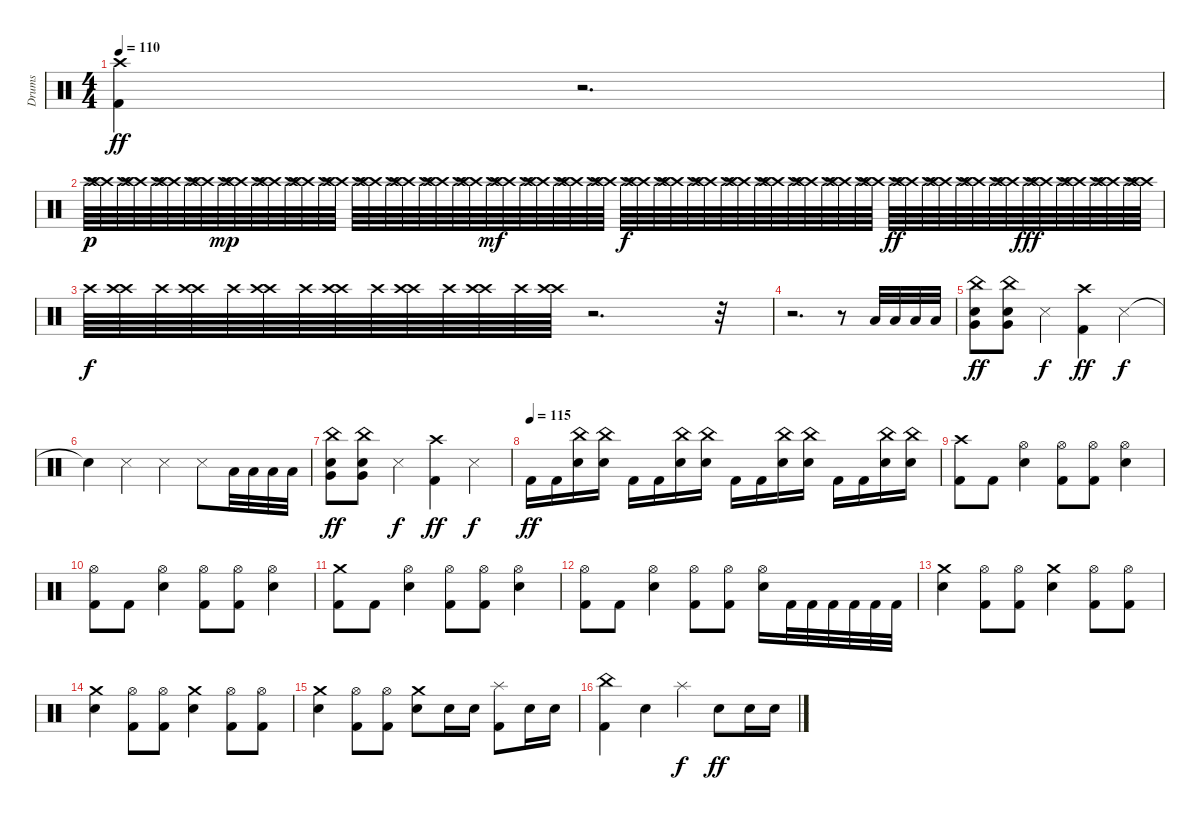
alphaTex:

\track ("Drums" "Drums") {instrument percussion}
\staff {score}
\articulation defaults
\ts (4 4)
\tempo 110
\clef neutral
\ks c
("Crash high (hit)" "Kick (hit) 2").4{dy ff} r.2{d} |
"Crash high (hit)".64{dy p volume 6} ("Crash high (hit)" "Crash high (hit)").64 "Crash high (hit)".64 ("Crash high (hit)" "Crash high (hit)").64 "Crash high (hit)".64 ("Crash high (hit)" "Crash high (hit)").64 "Crash high (hit)".64 ("Crash high (hit)" "Crash high (hit)").64 "Crash high (hit)".64{dy mp} ("Crash high (hit)" "Crash high (hit)").64 "Crash high (hit)".64 ("Crash high (hit)" "Crash high (hit)").64 "Crash high (hit)".64 ("Crash high (hit)" "Crash high (hit)").64 "Crash high (hit)".64 ("Crash high (hit)" "Crash high (hit)").64 "Crash high (hit)".64 ("Crash high (hit)" "Crash high (hit)").64 "Crash high (hit)".64 ("Crash high (hit)" "Crash high (hit)").64 "Crash high (hit)".64 ("Crash high (hit)" "Crash high (hit)").64 "Crash high (hit)".64 ("Crash high (hit)" "Crash high (hit)").64 "Crash high (hit)".64{dy mf} ("Crash high (hit)" "Crash high (hit)").64 "Crash high (hit)".64 ("Crash high (hit)" "Crash high (hit)").64 "Crash high (hit)".64 ("Crash high (hit)" "Crash high (hit)").64 "Crash high (hit)".64 ("Crash high (hit)" "Crash high (hit)").64 "Crash high (hit)".64{dy f} ("Crash high (hit)" "Crash high (hit)").64 "Crash high (hit)".64 ("Crash high (hit)" "Crash high (hit)").64 "Crash high (hit)".64 ("Crash high (hit)" "Crash high (hit)").64 "Crash high (hit)".64 ("Crash high (hit)" "Crash high (hit)").64 "Crash high (hit)".64 ("Crash high (hit)" "Crash high (hit)").64 "Crash high (hit)".64 ("Crash high (hit)" "Crash high (hit)").64 "Crash high (hit)".64 ("Crash high (hit)" "Crash high (hit)").64 "Crash high (hit)".64 ("Crash high (hit)" "Crash high (hit)").64 "Crash high (hit)".64{dy ff} ("Crash high (hit)" "Crash high (hit)").64 "Crash high (hit)".64 ("Crash high (hit)" "Crash high (hit)").64 "Crash high (hit)".64 ("Crash high (hit)" "Crash high (hit)").64 "Crash high (hit)".64 ("Crash high (hit)" "Crash high (hit)").64 "Crash high (hit)".64{dy fff} ("Crash high (hit)" "Crash high (hit)").64 "Crash high (hit)".64 ("Crash high (hit)" "Crash high (hit)").64 "Crash high (hit)".64 ("Crash high (hit)" "Crash high (hit)").64 "Crash high (hit)".64 ("Crash high (hit)" "Crash high (hit)").64 |
"Crash high (hit)".64{dy f} ("Crash high (hit)" "Crash high (hit)").64 "Crash high (hit)".64 ("Crash high (hit)" "Crash high (hit)").64 "Crash high (hit)".64 ("Crash high (hit)" "Crash high (hit)").64 "Crash high (hit)".64 ("Crash high (hit)" "Crash high (hit)").64 "Crash high (hit)".64 ("Crash high (hit)" "Crash high (hit)").64 "Crash high (hit)".64 ("Crash high (hit)" "Crash high (hit)").64 "Crash high (hit)".64 ("Crash high (hit)" "Crash high (hit)").64 r.2{d} r.32 |
r.2{d} r.8 "Low Tom (hit)".32{volume 11} "Low Tom (hit)".32 "Low Tom (hit)".32 "Low Tom (hit)".32 |
("China (hit)" "Very Low Tom (hit)" "Electric Snare (hit)").8{dy ff} ("China (hit)" "Very Low Tom (hit)" "Electric Snare (hit)").8 "Snare (side stick) 3".4{dy f} ("Crash high (hit)" "Kick (hit) 2").4{dy ff} "Snare (side stick) 3".4{dy f} |
"Snare (hit)"{t}.4 "Snare (side stick) 3".4 "Snare (side stick) 3".4 "Snare (side stick) 3".8 "Low Tom (hit)".32 "Low Tom (hit)".32 "Low Tom (hit)".32 "Low Tom (hit)".32 |
("China (hit)" "Very Low Tom (hit)" "Electric Snare (hit)").8{dy ff} ("China (hit)" "Very Low Tom (hit)" "Electric Snare (hit)").8 "Snare (side stick) 3".4{dy f} ("Crash high (hit)" "Kick (hit) 2").4{dy ff} "Snare (side stick) 3".4{dy f} |
\tempo (115)
"Kick (hit) 2".16{dy ff} "Kick (hit) 2".16 ("China (hit)" "Electric Snare (hit)").16 ("China (hit)" "Electric Snare (hit)").16 "Kick (hit) 2".16 "Kick (hit) 2".16 ("China (hit)" "Electric Snare (hit)").16 ("China (hit)" "Electric Snare (hit)").16 "Kick (hit) 2".16 "Kick (hit) 2".16 ("China (hit)" "Electric Snare (hit)").16 ("China (hit)" "Electric Snare (hit)").16 "Kick (hit) 2".16 "Kick (hit) 2".16 ("China (hit)" "Electric Snare (hit)").16 ("China (hit)" "Electric Snare (hit)").16 |
("Crash high (hit)" "Kick (hit) 2").8 "Kick (hit) 2".8 ("Hi-Hat (open)" "Electric Snare (hit)").4 ("Hi-Hat (open)" "Kick (hit) 2").8 ("Hi-Hat (open)" "Kick (hit) 2").8 ("Hi-Hat (open)" "Electric Snare (hit)").4 |
("Hi-Hat (open)" "Kick (hit) 2").8 "Kick (hit) 2".8 ("Hi-Hat (open)" "Electric Snare (hit)").4 ("Hi-Hat (open)" "Kick (hit) 2").8 ("Hi-Hat (open)" "Kick (hit) 2").8 ("Hi-Hat (open)" "Electric Snare (hit)").4 |
("Crash medium (hit)" "Kick (hit) 2").8 "Kick (hit) 2".8 ("Hi-Hat (open)" "Electric Snare (hit)").4 ("Hi-Hat (open)" "Kick (hit) 2").8 ("Hi-Hat (open)" "Kick (hit) 2").8 ("Hi-Hat (open)" "Electric Snare (hit)").4 |
("Hi-Hat (open)" "Kick (hit) 2").8 "Kick (hit) 2".8 ("Hi-Hat (open)" "Electric Snare (hit)").4 ("Hi-Hat (open)" "Kick (hit) 2").8 ("Hi-Hat (open)" "Kick (hit) 2").8 ("Hi-Hat (open)" "Electric Snare (hit)").16 "Kick (hit) 2".32 "Kick (hit) 2".32 "Kick (hit) 2".32 "Kick (hit) 2".32 "Kick (hit) 2".32 "Kick (hit) 2".32 |
("Crash medium (hit)" "Electric Snare (hit)").4 ("Hi-Hat (open)" "Kick (hit) 2").8 ("Hi-Hat (open)" "Kick (hit) 2").8 ("Crash medium (hit)" "Electric Snare (hit)").4 ("Hi-Hat (open)" "Kick (hit) 2").8 ("Hi-Hat (open)" "Kick (hit) 2").8 |
("Crash medium (hit)" "Electric Snare (hit)").4 ("Hi-Hat (open)" "Kick (hit) 2").8 ("Hi-Hat (open)" "Kick (hit) 2").8 ("Crash medium (hit)" "Electric Snare (hit)").4 ("Hi-Hat (open)" "Kick (hit) 2").8 ("Hi-Hat (open)" "Kick (hit) 2").8 |
("Crash medium (hit)" "Electric Snare (hit)").4 ("Hi-Hat (open)" "Kick (hit) 2").8 ("Hi-Hat (open)" "Kick (hit) 2").8 ("Crash medium (hit)" "Electric Snare (hit)").8 "Electric Snare (hit)".16 "Electric Snare (hit)".16 ("Splash (hit)" "Kick (hit) 2").8 "Electric Snare (hit)".16 "Electric Snare (hit)".16 |
("China (hit)" "Kick (hit) 2").4 "Electric Snare (hit)".4 "Splash (hit)".4{dy f} "Electric Snare (hit)".8{dy ff} "Electric Snare (hit)".16 "Electric Snare (hit)".16
